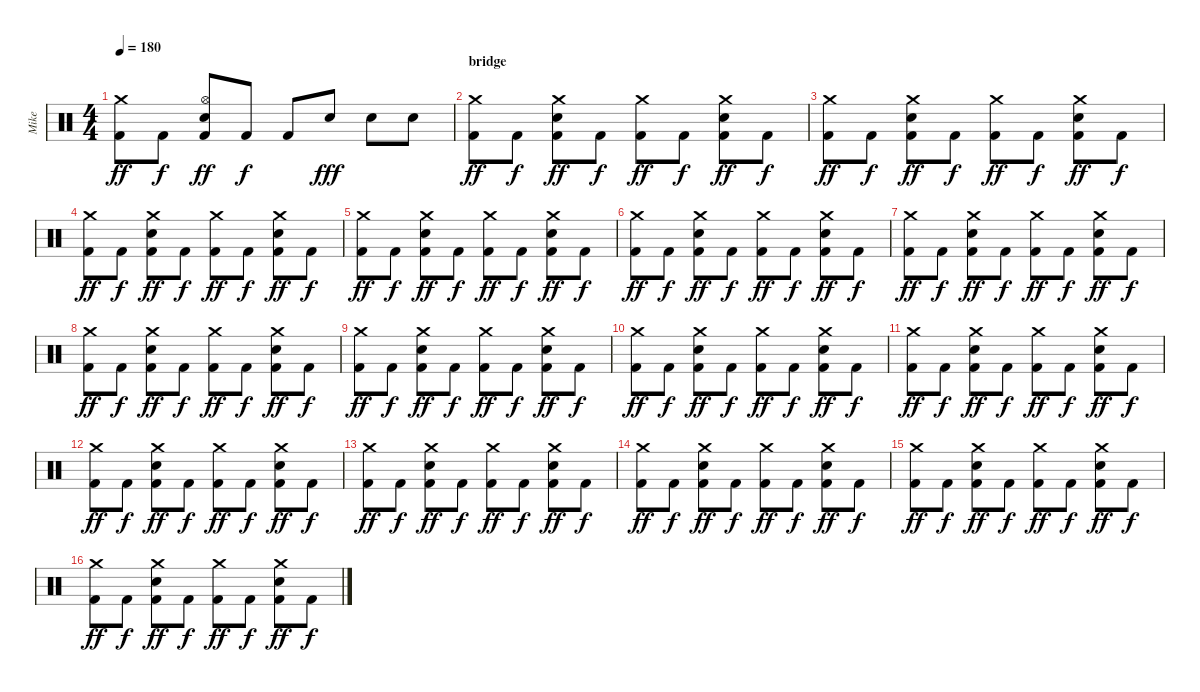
\track ("Mike" "Mike") {instrument percussion}
\staff {score}
\articulation defaults
\ts (4 4)
\tempo 180
\clef neutral
\ks c
("Crash medium (hit)" "Kick (hit) 2").8{dy ff} "Kick (hit) 2".8{dy f} ("Hi-Hat (open)" "Snare (hit) 2" "Kick (hit) 2").8{dy ff} "Kick (hit) 2".8{dy f} "Kick (hit) 2".8 "Snare (hit) 2".8{dy fff} "Snare (hit) 2".8 "Snare (hit) 2".8 |
\section ("" "bridge")
("Crash medium (hit)" "Kick (hit) 2").8{dy ff} "Kick (hit) 2".8{dy f} ("Crash medium (hit)" "Snare (hit) 2" "Kick (hit) 2").8{dy ff} "Kick (hit) 2".8{dy f} ("Crash medium (hit)" "Kick (hit) 2").8{dy ff} "Kick (hit) 2".8{dy f} ("Crash medium (hit)" "Snare (hit) 2" "Kick (hit) 2").8{dy ff} "Kick (hit) 2".8{dy f} |
("Crash medium (hit)" "Kick (hit) 2").8{dy ff} "Kick (hit) 2".8{dy f} ("Crash medium (hit)" "Snare (hit) 2" "Kick (hit) 2").8{dy ff} "Kick (hit) 2".8{dy f} ("Crash medium (hit)" "Kick (hit) 2").8{dy ff} "Kick (hit) 2".8{dy f} ("Crash medium (hit)" "Snare (hit) 2" "Kick (hit) 2").8{dy ff} "Kick (hit) 2".8{dy f} |
("Crash medium (hit)" "Kick (hit) 2").8{dy ff} "Kick (hit) 2".8{dy f} ("Crash medium (hit)" "Snare (hit) 2" "Kick (hit) 2").8{dy ff} "Kick (hit) 2".8{dy f} ("Crash medium (hit)" "Kick (hit) 2").8{dy ff} "Kick (hit) 2".8{dy f} ("Crash medium (hit)" "Snare (hit) 2" "Kick (hit) 2").8{dy ff} "Kick (hit) 2".8{dy f} |
("Crash medium (hit)" "Kick (hit) 2").8{dy ff} "Kick (hit) 2".8{dy f} ("Crash medium (hit)" "Snare (hit) 2" "Kick (hit) 2").8{dy ff} "Kick (hit) 2".8{dy f} ("Crash medium (hit)" "Kick (hit) 2").8{dy ff} "Kick (hit) 2".8{dy f} ("Crash medium (hit)" "Snare (hit) 2" "Kick (hit) 2").8{dy ff} "Kick (hit) 2".8{dy f} |
("Crash medium (hit)" "Kick (hit) 2").8{dy ff} "Kick (hit) 2".8{dy f} ("Crash medium (hit)" "Snare (hit) 2" "Kick (hit) 2").8{dy ff} "Kick (hit) 2".8{dy f} ("Crash medium (hit)" "Kick (hit) 2").8{dy ff} "Kick (hit) 2".8{dy f} ("Crash medium (hit)" "Snare (hit) 2" "Kick (hit) 2").8{dy ff} "Kick (hit) 2".8{dy f} |
("Crash medium (hit)" "Kick (hit) 2").8{dy ff} "Kick (hit) 2".8{dy f} ("Crash medium (hit)" "Snare (hit) 2" "Kick (hit) 2").8{dy ff} "Kick (hit) 2".8{dy f} ("Crash medium (hit)" "Kick (hit) 2").8{dy ff} "Kick (hit) 2".8{dy f} ("Crash medium (hit)" "Snare (hit) 2" "Kick (hit) 2").8{dy ff} "Kick (hit) 2".8{dy f} |
("Crash medium (hit)" "Kick (hit) 2").8{dy ff} "Kick (hit) 2".8{dy f} ("Crash medium (hit)" "Snare (hit) 2" "Kick (hit) 2").8{dy ff} "Kick (hit) 2".8{dy f} ("Crash medium (hit)" "Kick (hit) 2").8{dy ff} "Kick (hit) 2".8{dy f} ("Crash medium (hit)" "Snare (hit) 2" "Kick (hit) 2").8{dy ff} "Kick (hit) 2".8{dy f} |
("Crash medium (hit)" "Kick (hit) 2").8{dy ff} "Kick (hit) 2".8{dy f} ("Crash medium (hit)" "Snare (hit) 2" "Kick (hit) 2").8{dy ff} "Kick (hit) 2".8{dy f} ("Crash medium (hit)" "Kick (hit) 2").8{dy ff} "Kick (hit) 2".8{dy f} ("Crash medium (hit)" "Snare (hit) 2" "Kick (hit) 2").8{dy ff} "Kick (hit) 2".8{dy f} |
("Crash medium (hit)" "Kick (hit) 2").8{dy ff} "Kick (hit) 2".8{dy f} ("Crash medium (hit)" "Snare (hit) 2" "Kick (hit) 2").8{dy ff} "Kick (hit) 2".8{dy f} ("Crash medium (hit)" "Kick (hit) 2").8{dy ff} "Kick (hit) 2".8{dy f} ("Crash medium (hit)" "Snare (hit) 2" "Kick (hit) 2").8{dy ff} "Kick (hit) 2".8{dy f} |
("Crash medium (hit)" "Kick (hit) 2").8{dy ff} "Kick (hit) 2".8{dy f} ("Crash medium (hit)" "Snare (hit) 2" "Kick (hit) 2").8{dy ff} "Kick (hit) 2".8{dy f} ("Crash medium (hit)" "Kick (hit) 2").8{dy ff} "Kick (hit) 2".8{dy f} ("Crash medium (hit)" "Snare (hit) 2" "Kick (hit) 2").8{dy ff} "Kick (hit) 2".8{dy f} |
("Crash medium (hit)" "Kick (hit) 2").8{dy ff} "Kick (hit) 2".8{dy f} ("Crash medium (hit)" "Snare (hit) 2" "Kick (hit) 2").8{dy ff} "Kick (hit) 2".8{dy f} ("Crash medium (hit)" "Kick (hit) 2").8{dy ff} "Kick (hit) 2".8{dy f} ("Crash medium (hit)" "Snare (hit) 2" "Kick (hit) 2").8{dy ff} "Kick (hit) 2".8{dy f} |
("Crash medium (hit)" "Kick (hit) 2").8{dy ff} "Kick (hit) 2".8{dy f} ("Crash medium (hit)" "Snare (hit) 2" "Kick (hit) 2").8{dy ff} "Kick (hit) 2".8{dy f} ("Crash medium (hit)" "Kick (hit) 2").8{dy ff} "Kick (hit) 2".8{dy f} ("Crash medium (hit)" "Snare (hit) 2" "Kick (hit) 2").8{dy ff} "Kick (hit) 2".8{dy f} |
("Crash medium (hit)" "Kick (hit) 2").8{dy ff} "Kick (hit) 2".8{dy f} ("Crash medium (hit)" "Snare (hit) 2" "Kick (hit) 2").8{dy ff} "Kick (hit) 2".8{dy f} ("Crash medium (hit)" "Kick (hit) 2").8{dy ff} "Kick (hit) 2".8{dy f} ("Crash medium (hit)" "Snare (hit) 2" "Kick (hit) 2").8{dy ff} "Kick (hit) 2".8{dy f} |
("Crash medium (hit)" "Kick (hit) 2").8{dy ff} "Kick (hit) 2".8{dy f} ("Crash medium (hit)" "Snare (hit) 2" "Kick (hit) 2").8{dy ff} "Kick (hit) 2".8{dy f} ("Crash medium (hit)" "Kick (hit) 2").8{dy ff} "Kick (hit) 2".8{dy f} ("Crash medium (hit)" "Snare (hit) 2" "Kick (hit) 2").8{dy ff} "Kick (hit) 2".8{dy f} |
("Crash medium (hit)" "Kick (hit) 2").8{dy ff} "Kick (hit) 2".8{dy f} ("Crash medium (hit)" "Snare (hit) 2" "Kick (hit) 2").8{dy ff} "Kick (hit) 2".8{dy f} ("Crash medium (hit)" "Kick (hit) 2").8{dy ff} "Kick (hit) 2".8{dy f} ("Crash medium (hit)" "Snare (hit) 2" "Kick (hit) 2").8{dy ff} "Kick (hit) 2".8{dy f}
